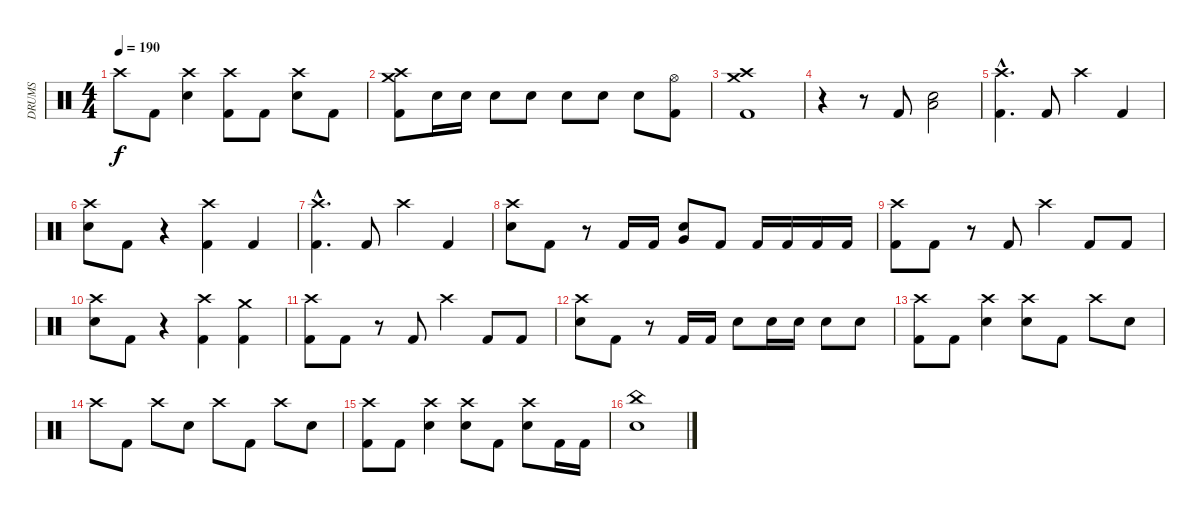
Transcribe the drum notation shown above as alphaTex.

\track ("DRUMS" "DRUMS") {instrument percussion}
\staff {score}
\articulation defaults
\ts (4 4)
\tempo 190
\clef neutral
\ks c "Crash high (hit)".8{dy f} "Kick (hit) 2".8
("Crash high (hit)" "Electric Snare (hit)").4 ("Crash high (hit)" "Kick (hit) 2").8 "Kick (hit) 2".8 ("Crash high (hit)" "Electric Snare (hit)").8 "Kick (hit) 2".8 |
("Crash medium (hit)" "Crash high (hit)" "Kick (hit) 2").8 "Electric Snare (hit)".16 "Electric Snare (hit)".16 "Electric Snare (hit)".8 "Electric Snare (hit)".8 "Electric Snare (hit)".8 "Electric Snare (hit)".8 "Electric Snare (hit)".8 ("Hi-Hat (open)" "Kick (hit) 2").8 |
("Crash high (hit)" "Crash medium (hit)" "Kick (hit) 2").1 |
r.4 r.8 "Kick (hit) 2".8 ("Low Floor Tom (hit)" "Electric Snare (hit)").2 |
("Crash high (hit)"{hac} "Kick (hit) 2"{hac}).4{d} "Kick (hit) 2".8 "Crash high (hit)".4 "Kick (hit) 2".4 |
("Crash high (hit)" "Electric Snare (hit)").8 "Kick (hit) 2".8 r.4 ("Crash high (hit)" "Kick (hit) 2").4 "Kick (hit) 2".4 |
("Crash high (hit)"{hac} "Kick (hit) 2"{hac}).4{d} "Kick (hit) 2".8 "Crash high (hit)".4 "Kick (hit) 2".4 |
("Crash high (hit)" "Electric Snare (hit)").8 "Kick (hit) 2".8 r.8 "Kick (hit) 2".16 "Kick (hit) 2".16 ("Very Low Tom (hit)" "Electric Snare (hit)").8 "Kick (hit) 2".8 "Kick (hit) 2".16 "Kick (hit) 2".16 "Kick (hit) 2".16 "Kick (hit) 2".16 |
("Crash high (hit)" "Kick (hit) 2").8 "Kick (hit) 2".8 r.8 "Kick (hit) 2".8 "Crash high (hit)".4 "Kick (hit) 2".8 "Kick (hit) 2".8 |
("Crash high (hit)" "Electric Snare (hit)").8 "Kick (hit) 2".8 r.4 ("Crash high (hit)" "Kick (hit) 2").4 ("Crash medium (hit)" "Kick (hit) 2").4 |
("Crash high (hit)" "Kick (hit) 2").8 "Kick (hit) 2".8 r.8 "Kick (hit) 2".8 "Crash high (hit)".4 "Kick (hit) 2".8 "Kick (hit) 2".8 |
("Crash high (hit)" "Electric Snare (hit)").8 "Kick (hit) 2".8 r.8 "Kick (hit) 2".16 "Kick (hit) 2".16 "Electric Snare (hit)".8 "Electric Snare (hit)".16 "Electric Snare (hit)".16 "Electric Snare (hit)".8 "Electric Snare (hit)".8 |
("Crash high (hit)" "Kick (hit) 2").8 "Kick (hit) 2".8 ("Crash high (hit)" "Electric Snare (hit)").4 ("Crash high (hit)" "Electric Snare (hit)").8 "Kick (hit) 2".8 "Crash high (hit)".8 "Electric Snare (hit)".8 |
"Crash high (hit)".8 "Kick (hit) 2".8 "Crash high (hit)".8 "Electric Snare (hit)".8 "Crash high (hit)".8 "Kick (hit) 2".8 "Crash high (hit)".8 "Electric Snare (hit)".8 |
("Crash high (hit)" "Kick (hit) 2").8 "Kick (hit) 2".8 ("Crash high (hit)" "Electric Snare (hit)").4 ("Crash high (hit)" "Electric Snare (hit)").8 "Kick (hit) 2".8 ("Crash high (hit)" "Electric Snare (hit)").8 "Kick (hit) 2".16 "Kick (hit) 2".16 |
("China (hit)" "Electric Snare (hit)").1
